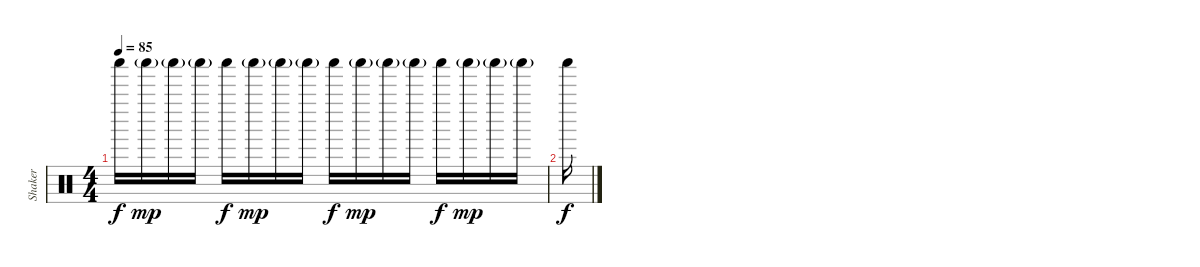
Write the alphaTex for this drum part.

\track ("Shaker" "Shaker") {instrument percussion}
\staff {score}
\articulation defaults
\ts (4 4)
\tempo 85
\clef neutral
\ks c "Shaker (hit)".16{dy f} "Shaker (hit)"{g}.16{dy mp} "Shaker (hit)"{g}.16 "Shaker (hit)"{g}.16 "Shaker (hit)".16{dy f} "Shaker (hit)"{g}.16{dy mp} "Shaker (hit)"{g}.16 "Shaker (hit)"{g}.16 "Shaker (hit)".16{dy f} "Shaker (hit)"{g}.16{dy mp} "Shaker (hit)"{g}.16 "Shaker (hit)"{g}.16 "Shaker (hit)".16{dy f} "Shaker (hit)"{g}.16{dy mp} "Shaker (hit)"{g}.16 "Shaker (hit)"{g}.16
|
"Shaker (hit)".16{dy f}
